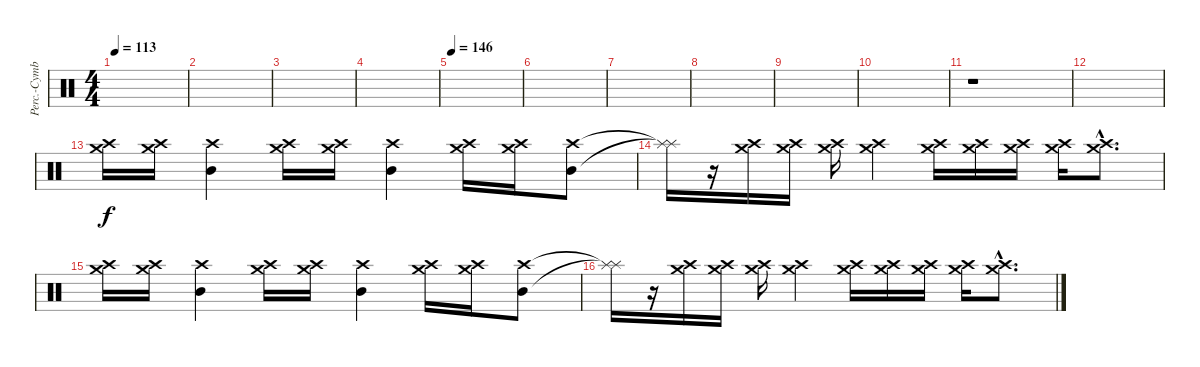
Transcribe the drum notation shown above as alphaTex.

\track ("Perc.-Cymbals" "Perc.-Cymb") {instrument percussion}
\staff {score}
\articulation defaults
\ts (4 4)
\tempo 113
\clef neutral
\ks c
|
|
|
|
\tempo 146
|
|
|
|
|
|
r.1 |
|
\section ("" "")
("Crash high (hit)" "Crash medium (hit)").16 ("Crash high (hit)" "Crash medium (hit)").16 ("Crash high (hit)" "Mid Tom (hit)").4 ("Crash high (hit)" "Crash medium (hit)").16 ("Crash high (hit)" "Crash medium (hit)").16 ("Crash high (hit)" "Mid Tom (hit)").4 ("Crash high (hit)" "Crash medium (hit)").16 ("Crash high (hit)" "Crash medium (hit)").16 ("Crash high (hit)" "Mid Tom (hit)").8 |
("Splash (hit)"{t} "Splash (hit)"{t}).16 r.16 ("Crash high (hit)" "Crash medium (hit)").16 ("Crash high (hit)" "Crash medium (hit)").16 ("Crash high (hit)" "Crash medium (hit)").16 ("Crash high (hit)" "Crash medium (hit)").4 ("Crash high (hit)" "Crash medium (hit)").16 ("Crash high (hit)" "Crash medium (hit)").16 ("Crash high (hit)" "Crash medium (hit)").16 ("Crash high (hit)" "Crash medium (hit)").16 ("Crash high (hit)"{hac} "Crash medium (hit)"{hac}).8{d} |
("Crash high (hit)" "Crash medium (hit)").16 ("Crash high (hit)" "Crash medium (hit)").16 ("Crash high (hit)" "Mid Tom (hit)").4 ("Crash high (hit)" "Crash medium (hit)").16 ("Crash high (hit)" "Crash medium (hit)").16 ("Crash high (hit)" "Mid Tom (hit)").4 ("Crash high (hit)" "Crash medium (hit)").16 ("Crash high (hit)" "Crash medium (hit)").16 ("Crash high (hit)" "Mid Tom (hit)").8 |
("Splash (hit)"{t} "Splash (hit)"{t}).16 r.16 ("Crash high (hit)" "Crash medium (hit)").16 ("Crash high (hit)" "Crash medium (hit)").16 ("Crash high (hit)" "Crash medium (hit)").16 ("Crash high (hit)" "Crash medium (hit)").4 ("Crash high (hit)" "Crash medium (hit)").16 ("Crash high (hit)" "Crash medium (hit)").16 ("Crash high (hit)" "Crash medium (hit)").16 ("Crash high (hit)" "Crash medium (hit)").16 ("Crash high (hit)"{hac} "Crash medium (hit)"{hac}).8{d}
